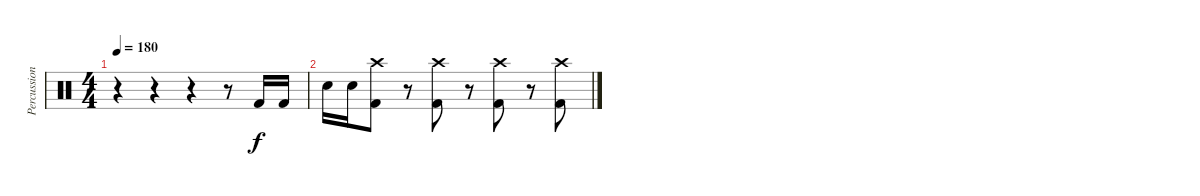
\track ("Percussion" "Percussion") {instrument percussion}
\staff {score}
\articulation defaults
\ts (4 4)
\tempo 180
\clef neutral
\ks c
r.4{dy f} r.4 r.4 r.8 "Kick (hit) 2".16 "Kick (hit) 2".16 |
"Snare (hit) 2".16 "Snare (hit) 2".16 ("Crash high (hit)" "Kick (hit) 2").8 r.8 ("Crash high (hit)" "Kick (hit) 2").8 r.8 ("Crash high (hit)" "Kick (hit) 2").8 r.8 ("Crash high (hit)" "Kick (hit) 2").8
